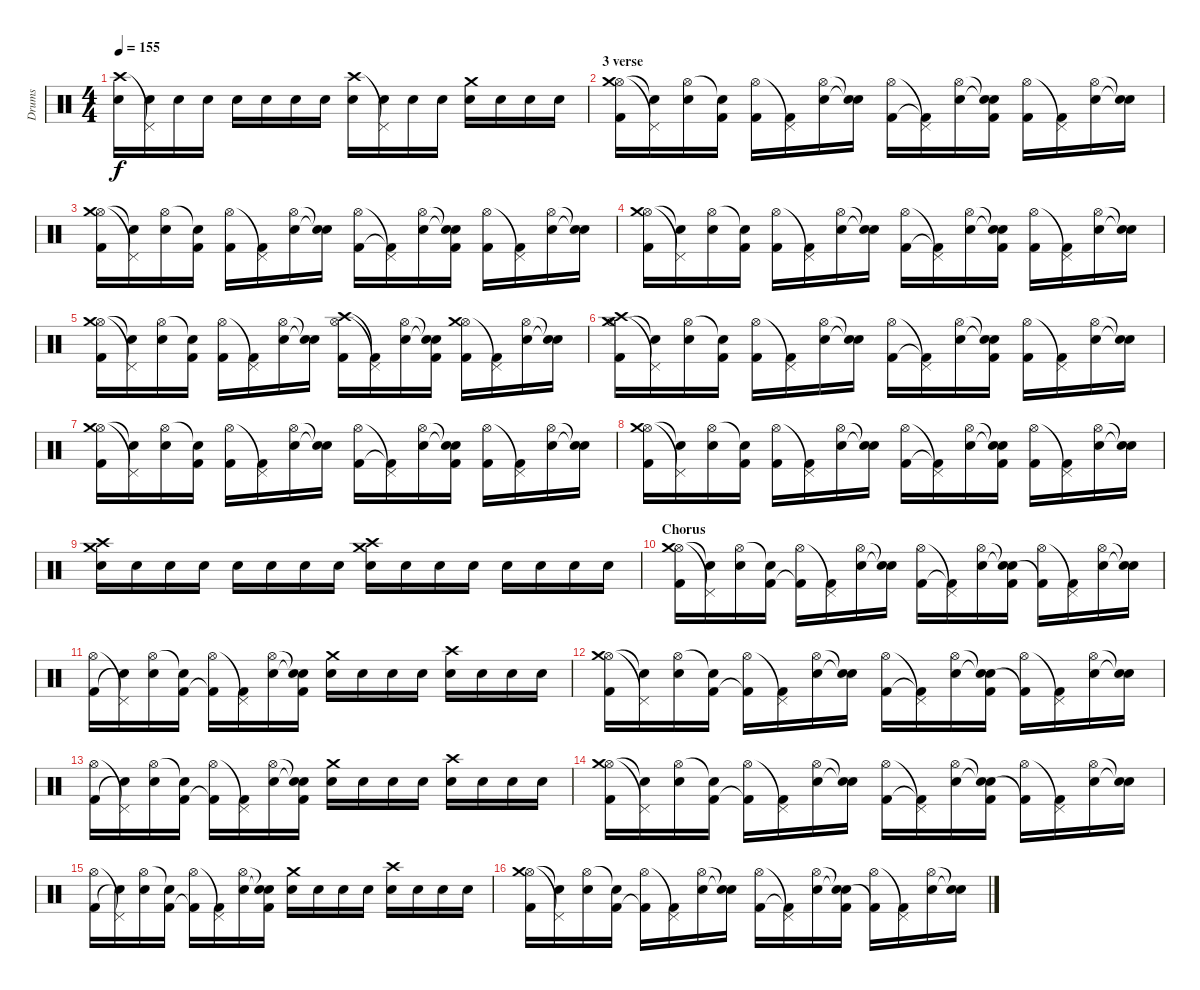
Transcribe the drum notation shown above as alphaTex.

\track ("Drums" "Drums") {instrument percussion}
\staff {score}
\articulation defaults
\ts (4 4)
\tempo 155
\clef neutral
\ks c
("Crash high (hit)" "Snare (hit) 2").16{dy f} ("Pedal Hi-Hat (hit)"{t} "Snare (hit) 2").16 "Electric Snare (hit)".16 "Electric Snare (hit)".16 "Electric Snare (hit)".16 "Electric Snare (hit)".16 "Electric Snare (hit)".16 "Snare (hit) 2".16 ("Crash high (hit)" "Snare (hit) 2").16 ("Pedal Hi-Hat (hit)"{t} "Snare (hit) 2").16 "Electric Snare (hit)".16 "Electric Snare (hit)".16 ("Crash medium (hit)" "Electric Snare (hit)").16 "Electric Snare (hit)".16 "Electric Snare (hit)".16 "Electric Snare (hit)".16 |
\section ("" "3 verse")
("Hi-Hat (open)" "Crash medium (hit)" "Kick (hit) 2").16 ("Pedal Hi-Hat (hit)"{t} "Snare (hit)"{t}).16 ("Hi-Hat (open)" "Electric Snare (hit)").16 ("Snare (hit)"{t} "Kick (hit) 2").16 ("Hi-Hat (open)" "Kick (hit) 2").16 ("Pedal Hi-Hat (hit)"{t} "Kick (hit) 2").16 ("Hi-Hat (open)" "Electric Snare (hit)").16 ("Snare (hit)"{t} "Electric Snare (hit)"{t}).16 ("Hi-Hat (open)" "Kick (hit) 2").16 ("Pedal Hi-Hat (hit)"{t} "Kick (hit) 2"{t}).16 ("Hi-Hat (open)" "Electric Snare (hit)").16 ("Snare (hit)"{t} "Electric Snare (hit)"{t} "Kick (hit) 2").16 ("Hi-Hat (open)" "Kick (hit) 2").16 ("Pedal Hi-Hat (hit)"{t} "Kick (hit) 2").16 ("Hi-Hat (open)" "Electric Snare (hit)").16 ("Snare (hit)"{t} "Electric Snare (hit)"{t}).16 |
("Hi-Hat (open)" "Crash medium (hit)" "Kick (hit) 2").16 ("Pedal Hi-Hat (hit)"{t} "Snare (hit)"{t}).16 ("Hi-Hat (open)" "Electric Snare (hit)").16 ("Snare (hit)"{t} "Kick (hit) 2").16 ("Hi-Hat (open)" "Kick (hit) 2").16 ("Pedal Hi-Hat (hit)"{t} "Kick (hit) 2").16 ("Hi-Hat (open)" "Electric Snare (hit)").16 ("Snare (hit)"{t} "Electric Snare (hit)"{t}).16 ("Hi-Hat (open)" "Kick (hit) 2").16 ("Pedal Hi-Hat (hit)"{t} "Kick (hit) 2"{t}).16 ("Hi-Hat (open)" "Electric Snare (hit)").16 ("Snare (hit)"{t} "Electric Snare (hit)"{t} "Kick (hit) 2").16 ("Hi-Hat (open)" "Kick (hit) 2").16 ("Pedal Hi-Hat (hit)"{t} "Kick (hit) 2").16 ("Hi-Hat (open)" "Electric Snare (hit)").16 ("Snare (hit)"{t} "Electric Snare (hit)"{t}).16 |
("Hi-Hat (open)" "Crash medium (hit)" "Kick (hit) 2").16 ("Pedal Hi-Hat (hit)"{t} "Snare (hit)"{t}).16 ("Hi-Hat (open)" "Electric Snare (hit)").16 ("Snare (hit)"{t} "Kick (hit) 2").16 ("Hi-Hat (open)" "Kick (hit) 2").16 ("Pedal Hi-Hat (hit)"{t} "Kick (hit) 2").16 ("Hi-Hat (open)" "Electric Snare (hit)").16 ("Snare (hit)"{t} "Electric Snare (hit)"{t}).16 ("Hi-Hat (open)" "Kick (hit) 2").16 ("Pedal Hi-Hat (hit)"{t} "Kick (hit) 2"{t}).16 ("Hi-Hat (open)" "Electric Snare (hit)").16 ("Snare (hit)"{t} "Electric Snare (hit)"{t} "Kick (hit) 2").16 ("Hi-Hat (open)" "Kick (hit) 2").16 ("Pedal Hi-Hat (hit)"{t} "Kick (hit) 2").16 ("Hi-Hat (open)" "Electric Snare (hit)").16 ("Snare (hit)"{t} "Electric Snare (hit)"{t}).16 |
("Hi-Hat (open)" "Crash medium (hit)" "Kick (hit) 2").16 ("Pedal Hi-Hat (hit)"{t} "Snare (hit)"{t}).16 ("Hi-Hat (open)" "Electric Snare (hit)").16 ("Snare (hit)"{t} "Kick (hit) 2").16 ("Hi-Hat (open)" "Kick (hit) 2").16 ("Pedal Hi-Hat (hit)"{t} "Kick (hit) 2").16 ("Hi-Hat (open)" "Electric Snare (hit)").16 ("Snare (hit)"{t} "Electric Snare (hit)"{t}).16 ("Hi-Hat (open)" "Crash high (hit)" "Kick (hit) 2").16 ("Pedal Hi-Hat (hit)"{t} "Kick (hit) 2"{t}).16 ("Hi-Hat (open)" "Electric Snare (hit)").16 ("Snare (hit)"{t} "Electric Snare (hit)"{t} "Kick (hit) 2").16 ("Hi-Hat (open)" "Crash medium (hit)" "Kick (hit) 2").16 ("Pedal Hi-Hat (hit)"{t} "Kick (hit) 2").16 ("Hi-Hat (open)" "Electric Snare (hit)").16 ("Snare (hit)"{t} "Electric Snare (hit)"{t}).16 |
("Hi-Hat (open)" "Crash medium (hit)" "Crash high (hit)" "Kick (hit) 2").16 ("Pedal Hi-Hat (hit)"{t} "Snare (hit)"{t}).16 ("Hi-Hat (open)" "Electric Snare (hit)").16 ("Snare (hit)"{t} "Kick (hit) 2").16 ("Hi-Hat (open)" "Kick (hit) 2").16 ("Pedal Hi-Hat (hit)"{t} "Kick (hit) 2").16 ("Hi-Hat (open)" "Electric Snare (hit)").16 ("Snare (hit)"{t} "Electric Snare (hit)"{t}).16 ("Hi-Hat (open)" "Kick (hit) 2").16 ("Pedal Hi-Hat (hit)"{t} "Kick (hit) 2"{t}).16 ("Hi-Hat (open)" "Electric Snare (hit)").16 ("Snare (hit)"{t} "Electric Snare (hit)"{t} "Kick (hit) 2").16 ("Hi-Hat (open)" "Kick (hit) 2").16 ("Pedal Hi-Hat (hit)"{t} "Kick (hit) 2").16 ("Hi-Hat (open)" "Electric Snare (hit)").16 ("Snare (hit)"{t} "Electric Snare (hit)"{t}).16 |
("Hi-Hat (open)" "Crash medium (hit)" "Kick (hit) 2").16 ("Pedal Hi-Hat (hit)"{t} "Snare (hit)"{t}).16 ("Hi-Hat (open)" "Electric Snare (hit)").16 ("Snare (hit)"{t} "Kick (hit) 2").16 ("Hi-Hat (open)" "Kick (hit) 2").16 ("Pedal Hi-Hat (hit)"{t} "Kick (hit) 2").16 ("Hi-Hat (open)" "Electric Snare (hit)").16 ("Snare (hit)"{t} "Electric Snare (hit)"{t}).16 ("Hi-Hat (open)" "Kick (hit) 2").16 ("Pedal Hi-Hat (hit)"{t} "Kick (hit) 2"{t}).16 ("Hi-Hat (open)" "Electric Snare (hit)").16 ("Snare (hit)"{t} "Electric Snare (hit)"{t} "Kick (hit) 2").16 ("Hi-Hat (open)" "Kick (hit) 2").16 ("Pedal Hi-Hat (hit)"{t} "Kick (hit) 2").16 ("Hi-Hat (open)" "Electric Snare (hit)").16 ("Snare (hit)"{t} "Electric Snare (hit)"{t}).16 |
("Hi-Hat (open)" "Crash medium (hit)" "Kick (hit) 2").16 ("Pedal Hi-Hat (hit)"{t} "Snare (hit)"{t}).16 ("Hi-Hat (open)" "Electric Snare (hit)").16 ("Snare (hit)"{t} "Kick (hit) 2").16 ("Hi-Hat (open)" "Kick (hit) 2").16 ("Pedal Hi-Hat (hit)"{t} "Kick (hit) 2").16 ("Hi-Hat (open)" "Electric Snare (hit)").16 ("Snare (hit)"{t} "Electric Snare (hit)"{t}).16 ("Hi-Hat (open)" "Kick (hit) 2").16 ("Pedal Hi-Hat (hit)"{t} "Kick (hit) 2"{t}).16 ("Hi-Hat (open)" "Electric Snare (hit)").16 ("Snare (hit)"{t} "Electric Snare (hit)"{t} "Kick (hit) 2").16 ("Hi-Hat (open)" "Kick (hit) 2").16 ("Pedal Hi-Hat (hit)"{t} "Kick (hit) 2").16 ("Hi-Hat (open)" "Electric Snare (hit)").16 ("Snare (hit)"{t} "Electric Snare (hit)"{t}).16 |
("Crash high (hit)" "Crash medium (hit)" "Snare (hit) 2").16 "Snare (hit) 2".16 "Snare (hit) 2".16 "Snare (hit) 2".16 "Snare (hit) 2".16 "Snare (hit) 2".16 "Snare (hit) 2".16 "Snare (hit) 2".16 ("Crash high (hit)" "Crash medium (hit)" "Electric Snare (hit)").16 "Electric Snare (hit)".16 "Electric Snare (hit)".16 "Electric Snare (hit)".16 "Electric Snare (hit)".16 "Electric Snare (hit)".16 "Electric Snare (hit)".16 "Electric Snare (hit)".16 |
\section ("" "Chorus")
("Hi-Hat (open)" "Crash medium (hit)" "Kick (hit) 2").16 ("Pedal Hi-Hat (hit)"{t} "Snare (hit)"{t}).16 ("Hi-Hat (open)" "Electric Snare (hit)").16 ("Snare (hit)"{t} "Kick (hit) 2").16 ("Hi-Hat (open)" "Kick (hit) 2"{t}).16 ("Pedal Hi-Hat (hit)"{t} "Kick (hit) 2").16 ("Hi-Hat (open)" "Electric Snare (hit)").16 ("Snare (hit)"{t} "Electric Snare (hit)"{t}).16 ("Hi-Hat (open)" "Kick (hit) 2").16 ("Pedal Hi-Hat (hit)"{t} "Kick (hit) 2"{t}).16 ("Hi-Hat (open)" "Electric Snare (hit)").16 ("Snare (hit)"{t} "Electric Snare (hit)"{t} "Kick (hit) 2").16 ("Hi-Hat (open)" "Kick (hit) 2"{t}).16 ("Pedal Hi-Hat (hit)"{t} "Kick (hit) 2").16 ("Hi-Hat (open)" "Electric Snare (hit)").16 ("Snare (hit)"{t} "Electric Snare (hit)"{t}).16 |
("Hi-Hat (open)" "Kick (hit) 2").16 ("Pedal Hi-Hat (hit)"{t} "Snare (hit)"{t}).16 ("Hi-Hat (open)" "Electric Snare (hit)").16 ("Snare (hit)"{t} "Kick (hit) 2").16 ("Hi-Hat (open)" "Kick (hit) 2"{t}).16 ("Pedal Hi-Hat (hit)"{t} "Kick (hit) 2").16 ("Hi-Hat (open)" "Electric Snare (hit)").16 ("Snare (hit)"{t} "Electric Snare (hit)"{t} "Kick (hit) 2").16 ("Crash medium (hit)" "Electric Snare (hit)").16 "Electric Snare (hit)".16 "Electric Snare (hit)".16 "Electric Snare (hit)".16 ("Crash high (hit)" "Electric Snare (hit)").16 "Electric Snare (hit)".16 "Electric Snare (hit)".16 "Electric Snare (hit)".16 |
("Hi-Hat (open)" "Crash medium (hit)" "Kick (hit) 2").16 ("Pedal Hi-Hat (hit)"{t} "Snare (hit)"{t}).16 ("Hi-Hat (open)" "Electric Snare (hit)").16 ("Snare (hit)"{t} "Kick (hit) 2").16 ("Hi-Hat (open)" "Kick (hit) 2"{t}).16 ("Pedal Hi-Hat (hit)"{t} "Kick (hit) 2").16 ("Hi-Hat (open)" "Electric Snare (hit)").16 ("Snare (hit)"{t} "Electric Snare (hit)"{t}).16 ("Hi-Hat (open)" "Kick (hit) 2").16 ("Pedal Hi-Hat (hit)"{t} "Kick (hit) 2"{t}).16 ("Hi-Hat (open)" "Electric Snare (hit)").16 ("Snare (hit)"{t} "Electric Snare (hit)"{t} "Kick (hit) 2").16 ("Hi-Hat (open)" "Kick (hit) 2"{t}).16 ("Pedal Hi-Hat (hit)"{t} "Kick (hit) 2").16 ("Hi-Hat (open)" "Electric Snare (hit)").16 ("Snare (hit)"{t} "Electric Snare (hit)"{t}).16 |
("Hi-Hat (open)" "Kick (hit) 2").16 ("Pedal Hi-Hat (hit)"{t} "Snare (hit)"{t}).16 ("Hi-Hat (open)" "Electric Snare (hit)").16 ("Snare (hit)"{t} "Kick (hit) 2").16 ("Hi-Hat (open)" "Kick (hit) 2"{t}).16 ("Pedal Hi-Hat (hit)"{t} "Kick (hit) 2").16 ("Hi-Hat (open)" "Electric Snare (hit)").16 ("Snare (hit)"{t} "Electric Snare (hit)"{t} "Kick (hit) 2").16 ("Crash medium (hit)" "Electric Snare (hit)").16 "Electric Snare (hit)".16 "Electric Snare (hit)".16 "Electric Snare (hit)".16 ("Crash high (hit)" "Electric Snare (hit)").16 "Electric Snare (hit)".16 "Electric Snare (hit)".16 "Electric Snare (hit)".16 |
("Hi-Hat (open)" "Crash medium (hit)" "Kick (hit) 2").16 ("Pedal Hi-Hat (hit)"{t} "Snare (hit)"{t}).16 ("Hi-Hat (open)" "Electric Snare (hit)").16 ("Snare (hit)"{t} "Kick (hit) 2").16 ("Hi-Hat (open)" "Kick (hit) 2"{t}).16 ("Pedal Hi-Hat (hit)"{t} "Kick (hit) 2").16 ("Hi-Hat (open)" "Electric Snare (hit)").16 ("Snare (hit)"{t} "Electric Snare (hit)"{t}).16 ("Hi-Hat (open)" "Kick (hit) 2").16 ("Pedal Hi-Hat (hit)"{t} "Kick (hit) 2"{t}).16 ("Hi-Hat (open)" "Electric Snare (hit)").16 ("Snare (hit)"{t} "Electric Snare (hit)"{t} "Kick (hit) 2").16 ("Hi-Hat (open)" "Kick (hit) 2"{t}).16 ("Pedal Hi-Hat (hit)"{t} "Kick (hit) 2").16 ("Hi-Hat (open)" "Electric Snare (hit)").16 ("Snare (hit)"{t} "Electric Snare (hit)"{t}).16 |
("Hi-Hat (open)" "Kick (hit) 2").16 ("Pedal Hi-Hat (hit)"{t} "Snare (hit)"{t}).16 ("Hi-Hat (open)" "Electric Snare (hit)").16 ("Snare (hit)"{t} "Kick (hit) 2").16 ("Hi-Hat (open)" "Kick (hit) 2"{t}).16 ("Pedal Hi-Hat (hit)"{t} "Kick (hit) 2").16 ("Hi-Hat (open)" "Electric Snare (hit)").16 ("Snare (hit)"{t} "Electric Snare (hit)"{t} "Kick (hit) 2").16 ("Crash medium (hit)" "Electric Snare (hit)").16 "Electric Snare (hit)".16 "Electric Snare (hit)".16 "Electric Snare (hit)".16 ("Crash high (hit)" "Electric Snare (hit)").16 "Electric Snare (hit)".16 "Electric Snare (hit)".16 "Electric Snare (hit)".16 |
("Hi-Hat (open)" "Crash medium (hit)" "Kick (hit) 2").16 ("Pedal Hi-Hat (hit)"{t} "Snare (hit)"{t}).16 ("Hi-Hat (open)" "Electric Snare (hit)").16 ("Snare (hit)"{t} "Kick (hit) 2").16 ("Hi-Hat (open)" "Kick (hit) 2"{t}).16 ("Pedal Hi-Hat (hit)"{t} "Kick (hit) 2").16 ("Hi-Hat (open)" "Electric Snare (hit)").16 ("Snare (hit)"{t} "Electric Snare (hit)"{t}).16 ("Hi-Hat (open)" "Kick (hit) 2").16 ("Pedal Hi-Hat (hit)"{t} "Kick (hit) 2"{t}).16 ("Hi-Hat (open)" "Electric Snare (hit)").16 ("Snare (hit)"{t} "Electric Snare (hit)"{t} "Kick (hit) 2").16 ("Hi-Hat (open)" "Kick (hit) 2"{t}).16 ("Pedal Hi-Hat (hit)"{t} "Kick (hit) 2").16 ("Hi-Hat (open)" "Electric Snare (hit)").16 ("Snare (hit)"{t} "Electric Snare (hit)"{t}).16
